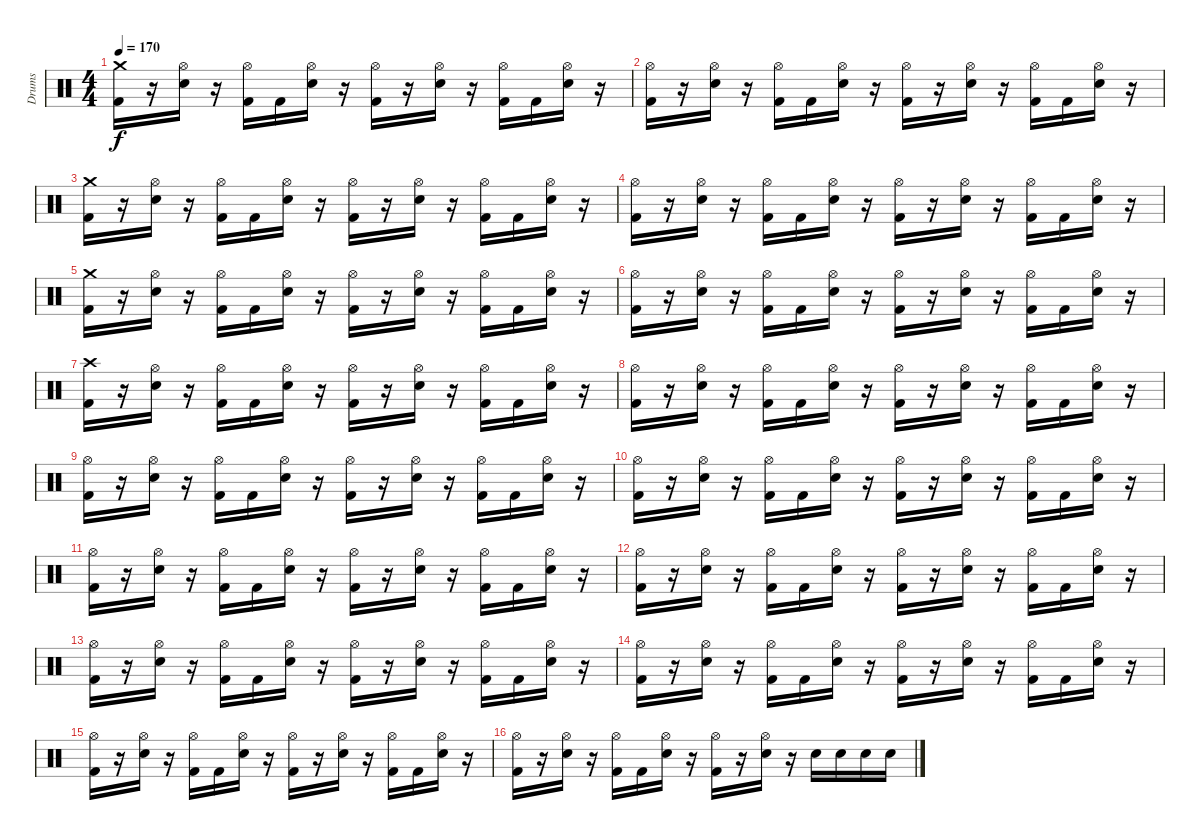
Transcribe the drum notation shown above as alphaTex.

\track ("Drums" "Drums") {instrument percussion}
\staff {score}
\articulation defaults
\ts (4 4)
\tempo 170
\clef neutral
\ks c
("Crash medium (hit)" "Kick (hit) 2").16{dy f} r.16 ("Hi-Hat (open)" "Snare (hit) 2").16 r.16 ("Hi-Hat (open)" "Kick (hit) 2").16 "Kick (hit) 2".16 ("Hi-Hat (open)" "Snare (hit) 2").16 r.16 ("Hi-Hat (open)" "Kick (hit) 2").16 r.16 ("Hi-Hat (open)" "Snare (hit) 2").16 r.16 ("Hi-Hat (open)" "Kick (hit) 2").16 "Kick (hit) 2".16 ("Hi-Hat (open)" "Snare (hit) 2").16 r.16 |
("Hi-Hat (open)" "Kick (hit) 2").16 r.16 ("Hi-Hat (open)" "Snare (hit) 2").16 r.16 ("Hi-Hat (open)" "Kick (hit) 2").16 "Kick (hit) 2".16 ("Hi-Hat (open)" "Snare (hit) 2").16 r.16 ("Hi-Hat (open)" "Kick (hit) 2").16 r.16 ("Hi-Hat (open)" "Snare (hit) 2").16 r.16 ("Hi-Hat (open)" "Kick (hit) 2").16 "Kick (hit) 2".16 ("Hi-Hat (open)" "Snare (hit) 2").16 r.16 |
("Crash medium (hit)" "Kick (hit) 2").16 r.16 ("Hi-Hat (open)" "Snare (hit) 2").16 r.16 ("Hi-Hat (open)" "Kick (hit) 2").16 "Kick (hit) 2".16 ("Hi-Hat (open)" "Snare (hit) 2").16 r.16 ("Hi-Hat (open)" "Kick (hit) 2").16 r.16 ("Hi-Hat (open)" "Snare (hit) 2").16 r.16 ("Hi-Hat (open)" "Kick (hit) 2").16 "Kick (hit) 2".16 ("Hi-Hat (open)" "Snare (hit) 2").16 r.16 |
("Hi-Hat (open)" "Kick (hit) 2").16 r.16 ("Hi-Hat (open)" "Snare (hit) 2").16 r.16 ("Hi-Hat (open)" "Kick (hit) 2").16 "Kick (hit) 2".16 ("Hi-Hat (open)" "Snare (hit) 2").16 r.16 ("Hi-Hat (open)" "Kick (hit) 2").16 r.16 ("Hi-Hat (open)" "Snare (hit) 2").16 r.16 ("Hi-Hat (open)" "Kick (hit) 2").16 "Kick (hit) 2".16 ("Hi-Hat (open)" "Snare (hit) 2").16 r.16 |
("Crash medium (hit)" "Kick (hit) 2").16 r.16 ("Hi-Hat (open)" "Snare (hit) 2").16 r.16 ("Hi-Hat (open)" "Kick (hit) 2").16 "Kick (hit) 2".16 ("Hi-Hat (open)" "Snare (hit) 2").16 r.16 ("Hi-Hat (open)" "Kick (hit) 2").16 r.16 ("Hi-Hat (open)" "Snare (hit) 2").16 r.16 ("Hi-Hat (open)" "Kick (hit) 2").16 "Kick (hit) 2".16 ("Hi-Hat (open)" "Snare (hit) 2").16 r.16 |
("Hi-Hat (open)" "Kick (hit) 2").16 r.16 ("Hi-Hat (open)" "Snare (hit) 2").16 r.16 ("Hi-Hat (open)" "Kick (hit) 2").16 "Kick (hit) 2".16 ("Hi-Hat (open)" "Snare (hit) 2").16 r.16 ("Hi-Hat (open)" "Kick (hit) 2").16 r.16 ("Hi-Hat (open)" "Snare (hit) 2").16 r.16 ("Hi-Hat (open)" "Kick (hit) 2").16 "Kick (hit) 2".16 ("Hi-Hat (open)" "Snare (hit) 2").16 r.16 |
("Crash high (hit)" "Kick (hit) 2").16 r.16 ("Hi-Hat (open)" "Snare (hit) 2").16 r.16 ("Hi-Hat (open)" "Kick (hit) 2").16 "Kick (hit) 2".16 ("Hi-Hat (open)" "Snare (hit) 2").16 r.16 ("Hi-Hat (open)" "Kick (hit) 2").16 r.16 ("Hi-Hat (open)" "Snare (hit) 2").16 r.16 ("Hi-Hat (open)" "Kick (hit) 2").16 "Kick (hit) 2".16 ("Hi-Hat (open)" "Snare (hit) 2").16 r.16 |
("Hi-Hat (open)" "Kick (hit) 2").16 r.16 ("Hi-Hat (open)" "Snare (hit) 2").16 r.16 ("Hi-Hat (open)" "Kick (hit) 2").16 "Kick (hit) 2".16 ("Hi-Hat (open)" "Snare (hit) 2").16 r.16 ("Hi-Hat (open)" "Kick (hit) 2").16 r.16 ("Hi-Hat (open)" "Snare (hit) 2").16 r.16 ("Hi-Hat (open)" "Kick (hit) 2").16 "Kick (hit) 2".16 ("Hi-Hat (open)" "Snare (hit) 2").16 r.16 |
("Hi-Hat (open)" "Kick (hit) 2").16 r.16 ("Hi-Hat (open)" "Snare (hit) 2").16 r.16 ("Hi-Hat (open)" "Kick (hit) 2").16 "Kick (hit) 2".16 ("Hi-Hat (open)" "Snare (hit) 2").16 r.16 ("Hi-Hat (open)" "Kick (hit) 2").16 r.16 ("Hi-Hat (open)" "Snare (hit) 2").16 r.16 ("Hi-Hat (open)" "Kick (hit) 2").16 "Kick (hit) 2".16 ("Hi-Hat (open)" "Snare (hit) 2").16 r.16 |
("Hi-Hat (open)" "Kick (hit) 2").16 r.16 ("Hi-Hat (open)" "Snare (hit) 2").16 r.16 ("Hi-Hat (open)" "Kick (hit) 2").16 "Kick (hit) 2".16 ("Hi-Hat (open)" "Snare (hit) 2").16 r.16 ("Hi-Hat (open)" "Kick (hit) 2").16 r.16 ("Hi-Hat (open)" "Snare (hit) 2").16 r.16 ("Hi-Hat (open)" "Kick (hit) 2").16 "Kick (hit) 2".16 ("Hi-Hat (open)" "Snare (hit) 2").16 r.16 |
("Hi-Hat (open)" "Kick (hit) 2").16 r.16 ("Hi-Hat (open)" "Snare (hit) 2").16 r.16 ("Hi-Hat (open)" "Kick (hit) 2").16 "Kick (hit) 2".16 ("Hi-Hat (open)" "Snare (hit) 2").16 r.16 ("Hi-Hat (open)" "Kick (hit) 2").16 r.16 ("Hi-Hat (open)" "Snare (hit) 2").16 r.16 ("Hi-Hat (open)" "Kick (hit) 2").16 "Kick (hit) 2".16 ("Hi-Hat (open)" "Snare (hit) 2").16 r.16 |
("Hi-Hat (open)" "Kick (hit) 2").16 r.16 ("Hi-Hat (open)" "Snare (hit) 2").16 r.16 ("Hi-Hat (open)" "Kick (hit) 2").16 "Kick (hit) 2".16 ("Hi-Hat (open)" "Snare (hit) 2").16 r.16 ("Hi-Hat (open)" "Kick (hit) 2").16 r.16 ("Hi-Hat (open)" "Snare (hit) 2").16 r.16 ("Hi-Hat (open)" "Kick (hit) 2").16 "Kick (hit) 2".16 ("Hi-Hat (open)" "Snare (hit) 2").16 r.16 |
("Hi-Hat (open)" "Kick (hit) 2").16 r.16 ("Hi-Hat (open)" "Snare (hit) 2").16 r.16 ("Hi-Hat (open)" "Kick (hit) 2").16 "Kick (hit) 2".16 ("Hi-Hat (open)" "Snare (hit) 2").16 r.16 ("Hi-Hat (open)" "Kick (hit) 2").16 r.16 ("Hi-Hat (open)" "Snare (hit) 2").16 r.16 ("Hi-Hat (open)" "Kick (hit) 2").16 "Kick (hit) 2".16 ("Hi-Hat (open)" "Snare (hit) 2").16 r.16 |
("Hi-Hat (open)" "Kick (hit) 2").16 r.16 ("Hi-Hat (open)" "Snare (hit) 2").16 r.16 ("Hi-Hat (open)" "Kick (hit) 2").16 "Kick (hit) 2".16 ("Hi-Hat (open)" "Snare (hit) 2").16 r.16 ("Hi-Hat (open)" "Kick (hit) 2").16 r.16 ("Hi-Hat (open)" "Snare (hit) 2").16 r.16 ("Hi-Hat (open)" "Kick (hit) 2").16 "Kick (hit) 2".16 ("Hi-Hat (open)" "Snare (hit) 2").16 r.16 |
("Hi-Hat (open)" "Kick (hit) 2").16 r.16 ("Hi-Hat (open)" "Snare (hit) 2").16 r.16 ("Hi-Hat (open)" "Kick (hit) 2").16 "Kick (hit) 2".16 ("Hi-Hat (open)" "Snare (hit) 2").16 r.16 ("Hi-Hat (open)" "Kick (hit) 2").16 r.16 ("Hi-Hat (open)" "Snare (hit) 2").16 r.16 ("Hi-Hat (open)" "Kick (hit) 2").16 "Kick (hit) 2".16 ("Hi-Hat (open)" "Snare (hit) 2").16 r.16 |
("Hi-Hat (open)" "Kick (hit) 2").16 r.16 ("Hi-Hat (open)" "Snare (hit) 2").16 r.16 ("Hi-Hat (open)" "Kick (hit) 2").16 "Kick (hit) 2".16 ("Hi-Hat (open)" "Snare (hit) 2").16 r.16 ("Hi-Hat (open)" "Kick (hit) 2").16 r.16 ("Hi-Hat (open)" "Snare (hit) 2").16 r.16 "Snare (hit) 2".16 "Snare (hit) 2".16 "Snare (hit) 2".16 "Snare (hit) 2".16
